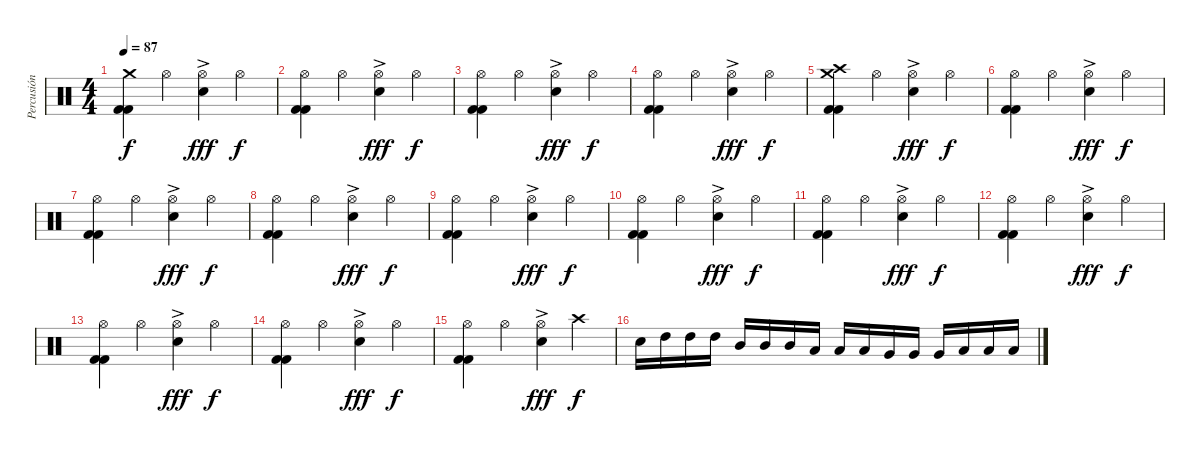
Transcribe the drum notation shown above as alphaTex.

\track ("Percusión" "Percusión") {instrument percussion}
\staff {score}
\articulation defaults
\ts (4 4)
\tempo 87
\clef neutral
\ks c
("Crash medium (hit)" "Kick (hit) 2" "Kick (hit) 2").4{dy f} "Hi-Hat (open)".4 ("Hi-Hat (open)"{ac} "Snare (hit) 2").4{dy fff} "Hi-Hat (open)".4{dy f} |
("Hi-Hat (open)" "Kick (hit) 2" "Kick (hit) 2").4 "Hi-Hat (open)".4 ("Hi-Hat (open)"{ac} "Snare (hit) 2").4{dy fff} "Hi-Hat (open)".4{dy f} |
("Hi-Hat (open)" "Kick (hit) 2" "Kick (hit) 2").4 "Hi-Hat (open)".4 ("Hi-Hat (open)"{ac} "Snare (hit) 2").4{dy fff} "Hi-Hat (open)".4{dy f} |
("Hi-Hat (open)" "Kick (hit) 2" "Kick (hit) 2").4 "Hi-Hat (open)".4 ("Hi-Hat (open)"{ac} "Snare (hit) 2").4{dy fff} "Hi-Hat (open)".4{dy f} |
("Crash medium (hit)" "Crash high (hit)" "Kick (hit) 2" "Kick (hit) 2").4 "Hi-Hat (open)".4 ("Hi-Hat (open)"{ac} "Snare (hit) 2").4{dy fff} "Hi-Hat (open)".4{dy f} |
("Hi-Hat (open)" "Kick (hit) 2" "Kick (hit) 2").4 "Hi-Hat (open)".4 ("Hi-Hat (open)"{ac} "Snare (hit) 2").4{dy fff} "Hi-Hat (open)".4{dy f} |
("Hi-Hat (open)" "Kick (hit) 2" "Kick (hit) 2").4 "Hi-Hat (open)".4 ("Hi-Hat (open)"{ac} "Snare (hit) 2").4{dy fff} "Hi-Hat (open)".4{dy f} |
("Hi-Hat (open)" "Kick (hit) 2" "Kick (hit) 2").4 "Hi-Hat (open)".4 ("Hi-Hat (open)"{ac} "Snare (hit) 2").4{dy fff} "Hi-Hat (open)".4{dy f} |
("Hi-Hat (open)" "Kick (hit) 2" "Kick (hit) 2").4 "Hi-Hat (open)".4 ("Hi-Hat (open)"{ac} "Snare (hit) 2").4{dy fff} "Hi-Hat (open)".4{dy f} |
("Hi-Hat (open)" "Kick (hit) 2" "Kick (hit) 2").4 "Hi-Hat (open)".4 ("Hi-Hat (open)"{ac} "Snare (hit) 2").4{dy fff} "Hi-Hat (open)".4{dy f} |
("Hi-Hat (open)" "Kick (hit) 2" "Kick (hit) 2").4 "Hi-Hat (open)".4 ("Hi-Hat (open)"{ac} "Snare (hit) 2").4{dy fff} "Hi-Hat (open)".4{dy f} |
("Hi-Hat (open)" "Kick (hit) 2" "Kick (hit) 2").4 "Hi-Hat (open)".4 ("Hi-Hat (open)"{ac} "Snare (hit) 2").4{dy fff} "Hi-Hat (open)".4{dy f} |
("Hi-Hat (open)" "Kick (hit) 2" "Kick (hit) 2").4 "Hi-Hat (open)".4 ("Hi-Hat (open)"{ac} "Snare (hit) 2").4{dy fff} "Hi-Hat (open)".4{dy f} |
("Hi-Hat (open)" "Kick (hit) 2" "Kick (hit) 2").4 "Hi-Hat (open)".4 ("Hi-Hat (open)"{ac} "Snare (hit) 2").4{dy fff} "Hi-Hat (open)".4{dy f} |
("Hi-Hat (open)" "Kick (hit) 2" "Kick (hit) 2").4 "Hi-Hat (open)".4 ("Hi-Hat (open)"{ac} "Snare (hit) 2").4{dy fff} "Crash high (hit)".4{dy f} |
"Snare (hit) 2".16 "High Tom (hit)".16 "High Tom (hit)".16 "High Tom (hit)".16 "Mid Tom (hit)".16 "Mid Tom (hit)".16 "Mid Tom (hit)".16 "Low Tom (hit)".16 "Low Tom (hit)".16 "Low Tom (hit)".16 "Very Low Tom (hit)".16 "Very Low Tom (hit)".16 "Very Low Tom (hit)".16 "Low Floor Tom (hit)".16 "Low Floor Tom (hit)".16 "Low Floor Tom (hit)".16
